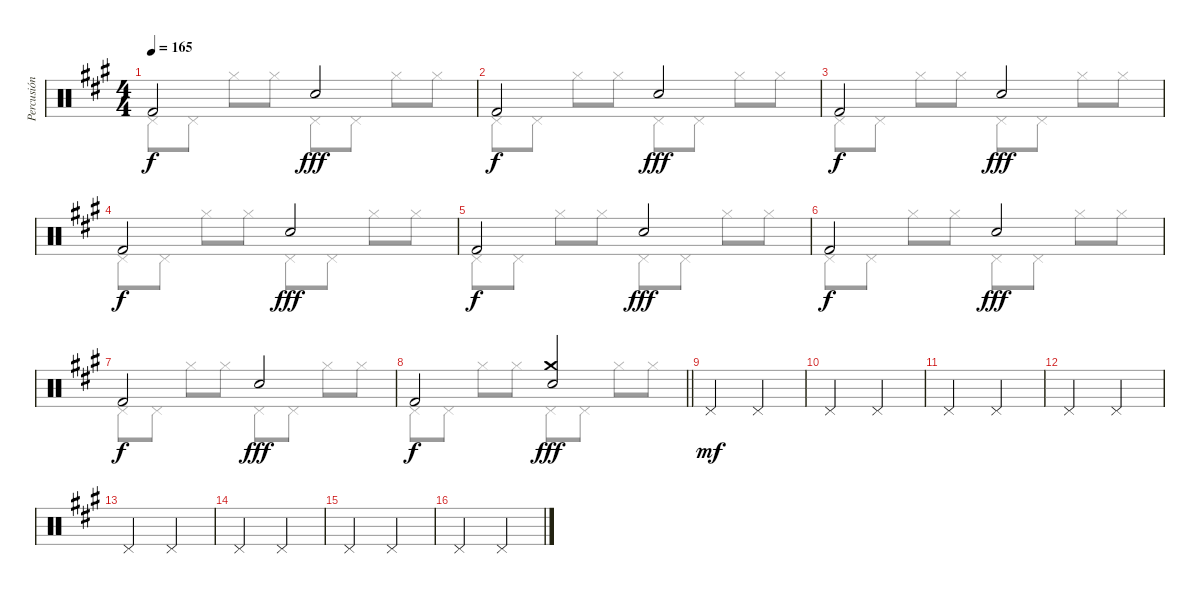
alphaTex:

\track ("Percusión" "Percusión") {instrument percussion}
\staff {score}
\articulation defaults
\voice
\ts (4 4)
\tempo 165
\clef neutral
\ks a "Kick (hit) 2".2{dy f} "Snare (hit) 2".2{dy fff}
|
"Kick (hit) 2".2{dy f} "Snare (hit) 2".2{dy fff} |
"Kick (hit) 2".2{dy f} "Snare (hit) 2".2{dy fff} |
"Kick (hit) 2".2{dy f} "Snare (hit) 2".2{dy fff} |
"Kick (hit) 2".2{dy f} "Snare (hit) 2".2{dy fff} |
"Kick (hit) 2".2{dy f} "Snare (hit) 2".2{dy fff} |
"Kick (hit) 2".2{dy f} "Snare (hit) 2".2{dy fff} |
\barLineRight lightlight "Kick (hit) 2".2{dy f}
("Crash medium (hit)" "Snare (hit) 2").2{dy fff} |
"Pedal Hi-Hat (hit)".2{dy mf} "Pedal Hi-Hat (hit)".2 |
"Pedal Hi-Hat (hit)".2 "Pedal Hi-Hat (hit)".2 |
"Pedal Hi-Hat (hit)".2 "Pedal Hi-Hat (hit)".2 |
"Pedal Hi-Hat (hit)".2 "Pedal Hi-Hat (hit)".2 |
"Pedal Hi-Hat (hit)".2 "Pedal Hi-Hat (hit)".2 |
"Pedal Hi-Hat (hit)".2 "Pedal Hi-Hat (hit)".2 |
"Pedal Hi-Hat (hit)".2 "Pedal Hi-Hat (hit)".2 |
"Pedal Hi-Hat (hit)".2 "Pedal Hi-Hat (hit)".2
\voice
\clef neutral
\ottava regular
\simile none
\ks a "Pedal Hi-Hat (hit)".8{dy f} "Pedal Hi-Hat (hit)".8 "Hi-Hat (closed)".8 "Hi-Hat (closed)".8 "Pedal Hi-Hat (hit)".8 "Pedal Hi-Hat (hit)".8 "Hi-Hat (closed)".8 "Hi-Hat (closed)".8
|
"Pedal Hi-Hat (hit)".8 "Pedal Hi-Hat (hit)".8 "Hi-Hat (closed)".8 "Hi-Hat (closed)".8 "Pedal Hi-Hat (hit)".8 "Pedal Hi-Hat (hit)".8 "Hi-Hat (closed)".8 "Hi-Hat (closed)".8 |
"Pedal Hi-Hat (hit)".8 "Pedal Hi-Hat (hit)".8 "Hi-Hat (closed)".8 "Hi-Hat (closed)".8 "Pedal Hi-Hat (hit)".8 "Pedal Hi-Hat (hit)".8 "Hi-Hat (closed)".8 "Hi-Hat (closed)".8 |
"Pedal Hi-Hat (hit)".8 "Pedal Hi-Hat (hit)".8 "Hi-Hat (closed)".8 "Hi-Hat (closed)".8 "Pedal Hi-Hat (hit)".8 "Pedal Hi-Hat (hit)".8 "Hi-Hat (closed)".8 "Hi-Hat (closed)".8 |
"Pedal Hi-Hat (hit)".8 "Pedal Hi-Hat (hit)".8 "Hi-Hat (closed)".8 "Hi-Hat (closed)".8 "Pedal Hi-Hat (hit)".8 "Pedal Hi-Hat (hit)".8 "Hi-Hat (closed)".8 "Hi-Hat (closed)".8 |
"Pedal Hi-Hat (hit)".8 "Pedal Hi-Hat (hit)".8 "Hi-Hat (closed)".8 "Hi-Hat (closed)".8 "Pedal Hi-Hat (hit)".8 "Pedal Hi-Hat (hit)".8 "Hi-Hat (closed)".8 "Hi-Hat (closed)".8 |
"Pedal Hi-Hat (hit)".8 "Pedal Hi-Hat (hit)".8 "Hi-Hat (closed)".8 "Hi-Hat (closed)".8 "Pedal Hi-Hat (hit)".8 "Pedal Hi-Hat (hit)".8 "Hi-Hat (closed)".8 "Hi-Hat (closed)".8 |
\barLineRight lightlight "Pedal Hi-Hat (hit)".8 "Pedal Hi-Hat (hit)".8 "Hi-Hat (closed)".8 "Hi-Hat (closed)".8 "Pedal Hi-Hat (hit)".8 "Pedal Hi-Hat (hit)".8 "Hi-Hat (closed)".8 "Hi-Hat (closed)".8
|
|
|
|
|
|
|
|
